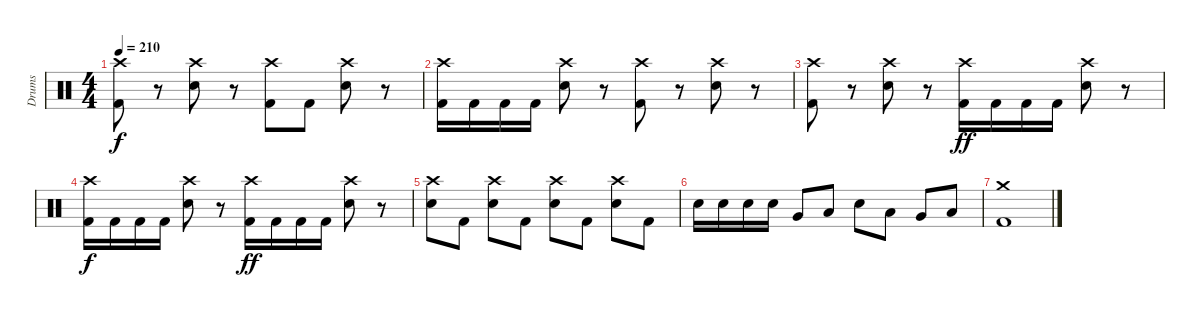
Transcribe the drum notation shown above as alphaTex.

\track ("Drums" "Drums") {instrument percussion}
\staff {score}
\articulation defaults
\ts (4 4)
\tempo 210
\clef neutral
\ks c
("Crash high (hit)" "Kick (hit) 2").8{dy f} r.8 ("Crash high (hit)" "Electric Snare (hit)").8 r.8 ("Crash high (hit)" "Kick (hit) 2").8 "Kick (hit) 2".8 ("Crash high (hit)" "Electric Snare (hit)").8 r.8 |
("Crash high (hit)" "Kick (hit) 2").16 "Kick (hit) 2".16 "Kick (hit) 2".16 "Kick (hit) 2".16 ("Crash high (hit)" "Electric Snare (hit)").8 r.8 ("Crash high (hit)" "Kick (hit) 2").8 r.8 ("Crash high (hit)" "Electric Snare (hit)").8 r.8 |
("Crash high (hit)" "Kick (hit) 2").8 r.8 ("Crash high (hit)" "Electric Snare (hit)").8 r.8 ("Crash high (hit)" "Kick (hit) 2").16{dy ff} "Kick (hit) 2".16 "Kick (hit) 2".16 "Kick (hit) 2".16 ("Crash high (hit)" "Electric Snare (hit)").8 r.8 |
("Crash high (hit)" "Kick (hit) 2").16{dy f} "Kick (hit) 2".16 "Kick (hit) 2".16 "Kick (hit) 2".16 ("Crash high (hit)" "Electric Snare (hit)").8 r.8 ("Crash high (hit)" "Kick (hit) 2").16{dy ff} "Kick (hit) 2".16 "Kick (hit) 2".16 "Kick (hit) 2".16 ("Crash high (hit)" "Electric Snare (hit)").8 r.8 |
("Crash high (hit)" "Electric Snare (hit)").8 "Kick (hit) 2".8 ("Crash high (hit)" "Electric Snare (hit)").8 "Kick (hit) 2".8 ("Crash high (hit)" "Electric Snare (hit)").8 "Kick (hit) 2".8 ("Crash high (hit)" "Electric Snare (hit)").8 "Kick (hit) 2".8 |
"Electric Snare (hit)".16 "Electric Snare (hit)".16 "Electric Snare (hit)".16 "Electric Snare (hit)".16 "Very Low Tom (hit)".8 "Low Floor Tom (hit)".8 "Electric Snare (hit)".8 "Low Tom (hit)".8 "Very Low Tom (hit)".8 "Low Floor Tom (hit)".8 |
("Crash medium (hit)" "Kick (hit) 2").1
